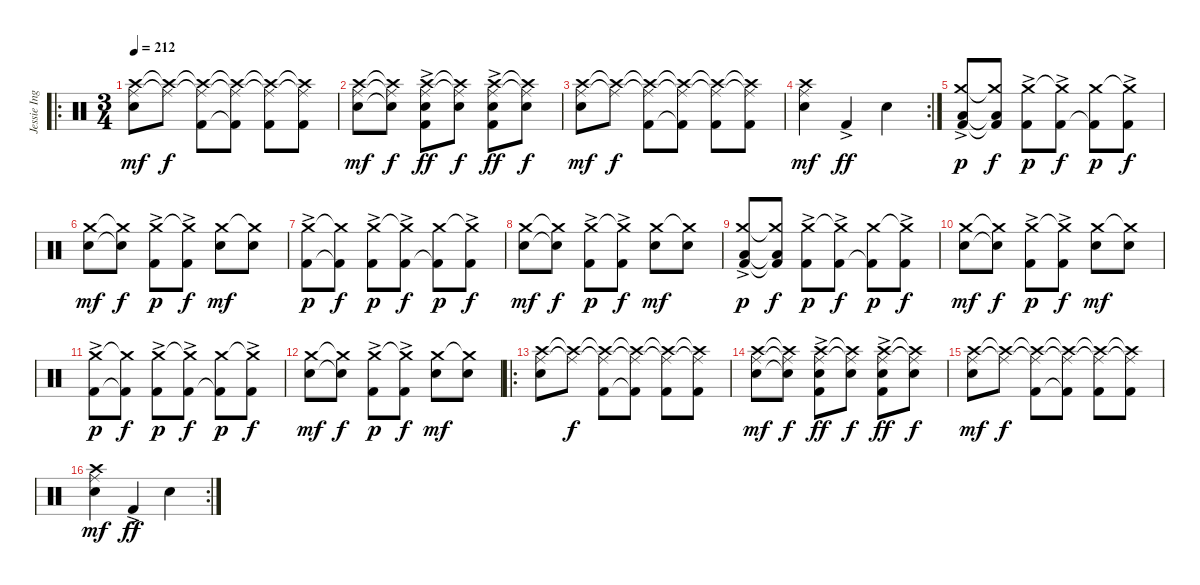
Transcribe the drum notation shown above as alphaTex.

\track ("Jessie Ingelevics" "Jessie Ing") {instrument percussion}
\staff {score}
\articulation defaults
\ro
\ts (3 4)
\tempo 212
\clef neutral
\ks c
("Crash high (hit)" "Ride (middle)" "Electric Snare (hit)").8{dy mf} ("Crash high (hit)"{t} "Ride (middle)"{t}).8{dy f} ("Crash high (hit)"{t} "Ride (middle)"{t} "Kick (hit) 2").8 ("Crash high (hit)"{t} "Ride (middle)"{t} "Kick (hit) 2"{t}).8 ("Crash high (hit)"{t} "Ride (middle)"{t} "Kick (hit) 2").8 ("Crash high (hit)"{t} "Ride (middle)"{t} "Kick (hit) 2").8 |
("Crash high (hit)" "Ride (middle)" "Electric Snare (hit)").8{dy mf} ("Crash high (hit)"{t} "Ride (middle)"{t} "Electric Snare (hit)"{t}).8{dy f} ("Crash high (hit)" "Ride (middle)" "Electric Snare (hit)" "Kick (hit) 2"{ac}).8{dy ff} ("Crash high (hit)"{t} "Ride (middle)"{t} "Electric Snare (hit)").8{dy f} ("Crash high (hit)" "Ride (middle)" "Electric Snare (hit)" "Kick (hit) 2"{ac}).8{dy ff} ("Crash high (hit)"{t} "Ride (middle)"{t} "Electric Snare (hit)").8{dy f} |
("Crash high (hit)" "Ride (middle)" "Electric Snare (hit)").8{dy mf} ("Crash high (hit)"{t} "Ride (middle)"{t}).8{dy f} ("Crash high (hit)"{t} "Ride (middle)"{t} "Kick (hit) 2").8 ("Crash high (hit)"{t} "Ride (middle)"{t} "Kick (hit) 2"{t}).8 ("Crash high (hit)"{t} "Ride (middle)"{t} "Kick (hit) 2").8 ("Crash high (hit)"{t} "Ride (middle)"{t} "Kick (hit) 2").8 |
\rc 2
("Crash high (hit)" "Ride (middle)" "Electric Snare (hit)").4{dy mf} "Kick (hit) 2"{ac}.4{dy ff} "Electric Snare (hit)".4 |
("Crash medium (hit)" "Low Floor Tom (hit)" "Kick (hit) 2"{ac}).8{dy p} ("Crash medium (hit)"{t} "Low Floor Tom (hit)"{t} "Kick (hit) 2"{t}).8{dy f} ("Crash medium (hit)" "Kick (hit) 2"{ac}).8{dy p} ("Crash medium (hit)"{t} "Kick (hit) 2"{ac}).8{dy f} ("Crash medium (hit)" "Kick (hit) 2"{t}).8{dy p} ("Crash medium (hit)"{t} "Kick (hit) 2"{ac}).8{dy f} |
("Crash medium (hit)" "Electric Snare (hit)").8{dy mf} ("Crash medium (hit)"{t} "Electric Snare (hit)"{t}).8{dy f} ("Crash medium (hit)" "Kick (hit) 2"{ac}).8{dy p} ("Crash medium (hit)"{t} "Kick (hit) 2"{ac}).8{dy f} ("Crash medium (hit)" "Electric Snare (hit)").8{dy mf} ("Crash medium (hit)"{t} "Electric Snare (hit)").8 |
("Crash medium (hit)" "Kick (hit) 2"{ac}).8{dy p} ("Crash medium (hit)"{t} "Kick (hit) 2"{t}).8{dy f} ("Crash medium (hit)" "Kick (hit) 2"{ac}).8{dy p} ("Crash medium (hit)"{t} "Kick (hit) 2"{ac}).8{dy f} ("Crash medium (hit)" "Kick (hit) 2"{t}).8{dy p} ("Crash medium (hit)"{t} "Kick (hit) 2"{ac}).8{dy f} |
("Crash medium (hit)" "Electric Snare (hit)").8{dy mf} ("Crash medium (hit)"{t} "Electric Snare (hit)"{t}).8{dy f} ("Crash medium (hit)" "Kick (hit) 2"{ac}).8{dy p} ("Crash medium (hit)"{t} "Kick (hit) 2"{ac}).8{dy f} ("Crash medium (hit)" "Electric Snare (hit)").8{dy mf} ("Crash medium (hit)"{t} "Electric Snare (hit)").8 |
("Crash medium (hit)" "Low Floor Tom (hit)" "Kick (hit) 2"{ac}).8{dy p} ("Crash medium (hit)"{t} "Low Floor Tom (hit)"{t} "Kick (hit) 2"{t}).8{dy f} ("Crash medium (hit)" "Kick (hit) 2"{ac}).8{dy p} ("Crash medium (hit)"{t} "Kick (hit) 2"{ac}).8{dy f} ("Crash medium (hit)" "Kick (hit) 2"{t}).8{dy p} ("Crash medium (hit)"{t} "Kick (hit) 2"{ac}).8{dy f} |
("Crash medium (hit)" "Electric Snare (hit)").8{dy mf} ("Crash medium (hit)"{t} "Electric Snare (hit)"{t}).8{dy f} ("Crash medium (hit)" "Kick (hit) 2"{ac}).8{dy p} ("Crash medium (hit)"{t} "Kick (hit) 2"{ac}).8{dy f} ("Crash medium (hit)" "Electric Snare (hit)").8{dy mf} ("Crash medium (hit)"{t} "Electric Snare (hit)").8 |
("Crash medium (hit)" "Kick (hit) 2"{ac}).8{dy p} ("Crash medium (hit)"{t} "Kick (hit) 2"{t}).8{dy f} ("Crash medium (hit)" "Kick (hit) 2"{ac}).8{dy p} ("Crash medium (hit)"{t} "Kick (hit) 2"{ac}).8{dy f} ("Crash medium (hit)" "Kick (hit) 2"{t}).8{dy p} ("Crash medium (hit)"{t} "Kick (hit) 2"{ac}).8{dy f} |
("Crash medium (hit)" "Electric Snare (hit)").8{dy mf} ("Crash medium (hit)"{t} "Electric Snare (hit)"{t}).8{dy f} ("Crash medium (hit)" "Kick (hit) 2"{ac}).8{dy p} ("Crash medium (hit)"{t} "Kick (hit) 2"{ac}).8{dy f} ("Crash medium (hit)" "Electric Snare (hit)").8{dy mf} ("Crash medium (hit)"{t} "Electric Snare (hit)").8 |
\ro
("Crash high (hit)" "Ride (middle)" "Electric Snare (hit)").8 ("Crash high (hit)"{t} "Ride (middle)"{t}).8{dy f} ("Crash high (hit)"{t} "Ride (middle)"{t} "Kick (hit) 2").8 ("Crash high (hit)"{t} "Ride (middle)"{t} "Kick (hit) 2"{t}).8 ("Crash high (hit)"{t} "Ride (middle)"{t} "Kick (hit) 2").8 ("Crash high (hit)"{t} "Ride (middle)"{t} "Kick (hit) 2").8 |
("Crash high (hit)" "Ride (middle)" "Electric Snare (hit)").8{dy mf} ("Crash high (hit)"{t} "Ride (middle)"{t} "Electric Snare (hit)"{t}).8{dy f} ("Crash high (hit)" "Ride (middle)" "Electric Snare (hit)" "Kick (hit) 2"{ac}).8{dy ff} ("Crash high (hit)"{t} "Ride (middle)"{t} "Electric Snare (hit)").8{dy f} ("Crash high (hit)" "Ride (middle)" "Electric Snare (hit)" "Kick (hit) 2"{ac}).8{dy ff} ("Crash high (hit)"{t} "Ride (middle)"{t} "Electric Snare (hit)").8{dy f} |
("Crash high (hit)" "Ride (middle)" "Electric Snare (hit)").8{dy mf} ("Crash high (hit)"{t} "Ride (middle)"{t}).8{dy f} ("Crash high (hit)"{t} "Ride (middle)"{t} "Kick (hit) 2").8 ("Crash high (hit)"{t} "Ride (middle)"{t} "Kick (hit) 2"{t}).8 ("Crash high (hit)"{t} "Ride (middle)"{t} "Kick (hit) 2").8 ("Crash high (hit)"{t} "Ride (middle)"{t} "Kick (hit) 2").8 |
\rc 2
("Crash high (hit)" "Ride (middle)" "Electric Snare (hit)").4{dy mf} "Kick (hit) 2"{ac}.4{dy ff} "Electric Snare (hit)".4
